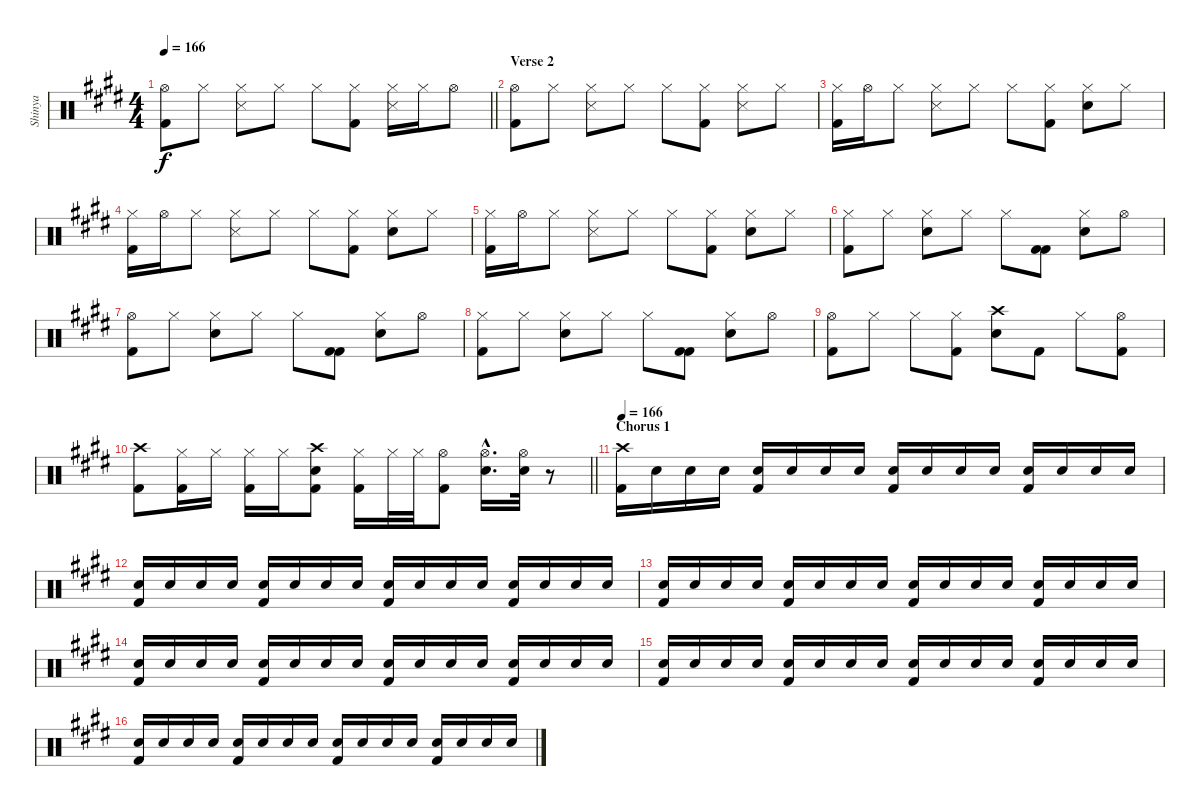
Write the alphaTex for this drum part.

\track ("Shinya" "Shinya") {instrument percussion}
\staff {score}
\articulation defaults
\ts (4 4)
\tempo 166
\clef neutral
\barLineRight lightlight
\ks e
("Hi-Hat (open)" "Kick (hit) 2").8{dy f} "Hi-Hat (closed)".8 ("Hi-Hat (closed)" "Snare (side stick) 3").8 "Hi-Hat (closed)".8 "Hi-Hat (closed)".8 ("Hi-Hat (closed)" "Kick (hit) 2").8 ("Hi-Hat (closed)" "Snare (side stick) 3").16 "Hi-Hat (closed)".16 "Hi-Hat (open)".8 |
\section ("" "Verse 2")
("Hi-Hat (open)" "Kick (hit) 2").8 "Hi-Hat (closed)".8 ("Hi-Hat (closed)" "Snare (side stick) 3").8 "Hi-Hat (closed)".8 "Hi-Hat (closed)".8 ("Hi-Hat (closed)" "Kick (hit) 2").8 ("Hi-Hat (closed)" "Snare (side stick) 3").8 "Hi-Hat (closed)".8 |
("Hi-Hat (closed)" "Kick (hit) 2").16 "Hi-Hat (open)".16 "Hi-Hat (closed)".8 ("Hi-Hat (closed)" "Snare (side stick) 3").8 "Hi-Hat (closed)".8 "Hi-Hat (closed)".8 ("Hi-Hat (closed)" "Kick (hit) 2").8 ("Hi-Hat (closed)" "Snare (hit) 2").8 "Hi-Hat (closed)".8 |
("Hi-Hat (closed)" "Kick (hit) 2").16 "Hi-Hat (open)".16 "Hi-Hat (closed)".8 ("Hi-Hat (closed)" "Snare (side stick) 3").8 "Hi-Hat (closed)".8 "Hi-Hat (closed)".8 ("Hi-Hat (closed)" "Kick (hit) 2").8 ("Hi-Hat (closed)" "Snare (hit) 2").8 "Hi-Hat (closed)".8 |
("Hi-Hat (closed)" "Kick (hit) 2").16 "Hi-Hat (open)".16 "Hi-Hat (closed)".8 ("Hi-Hat (closed)" "Snare (side stick) 3").8 "Hi-Hat (closed)".8 "Hi-Hat (closed)".8 ("Hi-Hat (closed)" "Kick (hit) 2").8 ("Hi-Hat (closed)" "Snare (hit) 2").8 "Hi-Hat (closed)".8 |
("Hi-Hat (closed)" "Kick (hit) 2").8 "Hi-Hat (closed)".8 ("Hi-Hat (closed)" "Snare (hit) 2").8 "Hi-Hat (closed)".8 "Hi-Hat (closed)".8 ("Kick (hit) 2" "Kick (hit) 2").8 ("Hi-Hat (closed)" "Snare (hit) 2").8 "Hi-Hat (open)".8 |
("Hi-Hat (open)" "Kick (hit) 2").8 "Hi-Hat (closed)".8 ("Hi-Hat (closed)" "Snare (hit) 2").8 "Hi-Hat (closed)".8 "Hi-Hat (closed)".8 ("Kick (hit) 2" "Kick (hit) 2").8 ("Hi-Hat (closed)" "Snare (hit) 2").8 "Hi-Hat (open)".8 |
("Hi-Hat (closed)" "Kick (hit) 2").8 "Hi-Hat (closed)".8 ("Hi-Hat (closed)" "Snare (hit) 2").8 "Hi-Hat (closed)".8 "Hi-Hat (closed)".8 ("Kick (hit) 2" "Kick (hit) 2").8 ("Hi-Hat (closed)" "Snare (hit) 2").8 "Hi-Hat (open)".8 |
("Hi-Hat (open)" "Kick (hit) 2").8 "Hi-Hat (closed)".8 "Hi-Hat (closed)".8 ("Hi-Hat (closed)" "Kick (hit) 2").8 ("Crash high (hit)" "Snare (hit) 2").8 "Kick (hit) 2".8 "Hi-Hat (closed)".8 ("Hi-Hat (open)" "Kick (hit) 2").8 |
\barLineRight lightlight
("Crash high (hit)" "Kick (hit) 2").8 ("Hi-Hat (closed)" "Kick (hit) 2").16 "Hi-Hat (closed)".16 ("Hi-Hat (closed)" "Kick (hit) 2").16 "Hi-Hat (closed)".16 ("Crash high (hit)" "Snare (hit) 2" "Kick (hit) 2").8 ("Hi-Hat (closed)" "Kick (hit) 2").16 "Hi-Hat (closed)".32 "Hi-Hat (closed)".32 ("Hi-Hat (open)" "Kick (hit) 2").8 ("Hi-Hat (open)"{hac} "Snare (hit) 2"{hac}).16{d} ("Hi-Hat (open)" "Snare (hit) 2").32 r.8 |
\section ("" "Chorus 1")
\tempo 166
("Crash high (hit)" "Kick (hit) 2").16 "Snare (hit) 2".16 "Snare (hit) 2".16 "Snare (hit) 2".16 ("Snare (hit) 2" "Kick (hit) 2").16 "Snare (hit) 2".16 "Snare (hit) 2".16 "Snare (hit) 2".16 ("Snare (hit) 2" "Kick (hit) 2").16 "Snare (hit) 2".16 "Snare (hit) 2".16 "Snare (hit) 2".16 ("Snare (hit) 2" "Kick (hit) 2").16 "Snare (hit) 2".16 "Snare (hit) 2".16 "Snare (hit) 2".16 |
("Snare (hit) 2" "Kick (hit) 2").16 "Snare (hit) 2".16 "Snare (hit) 2".16 "Snare (hit) 2".16 ("Snare (hit) 2" "Kick (hit) 2").16 "Snare (hit) 2".16 "Snare (hit) 2".16 "Snare (hit) 2".16 ("Snare (hit) 2" "Kick (hit) 2").16 "Snare (hit) 2".16 "Snare (hit) 2".16 "Snare (hit) 2".16 ("Snare (hit) 2" "Kick (hit) 2").16 "Snare (hit) 2".16 "Snare (hit) 2".16 "Snare (hit) 2".16 |
("Snare (hit) 2" "Kick (hit) 2").16 "Snare (hit) 2".16 "Snare (hit) 2".16 "Snare (hit) 2".16 ("Snare (hit) 2" "Kick (hit) 2").16 "Snare (hit) 2".16 "Snare (hit) 2".16 "Snare (hit) 2".16 ("Snare (hit) 2" "Kick (hit) 2").16 "Snare (hit) 2".16 "Snare (hit) 2".16 "Snare (hit) 2".16 ("Snare (hit) 2" "Kick (hit) 2").16 "Snare (hit) 2".16 "Snare (hit) 2".16 "Snare (hit) 2".16 |
("Snare (hit) 2" "Kick (hit) 2").16 "Snare (hit) 2".16 "Snare (hit) 2".16 "Snare (hit) 2".16 ("Snare (hit) 2" "Kick (hit) 2").16 "Snare (hit) 2".16 "Snare (hit) 2".16 "Snare (hit) 2".16 ("Snare (hit) 2" "Kick (hit) 2").16 "Snare (hit) 2".16 "Snare (hit) 2".16 "Snare (hit) 2".16 ("Snare (hit) 2" "Kick (hit) 2").16 "Snare (hit) 2".16 "Snare (hit) 2".16 "Snare (hit) 2".16 |
("Snare (hit) 2" "Kick (hit) 2").16 "Snare (hit) 2".16 "Snare (hit) 2".16 "Snare (hit) 2".16 ("Snare (hit) 2" "Kick (hit) 2").16 "Snare (hit) 2".16 "Snare (hit) 2".16 "Snare (hit) 2".16 ("Snare (hit) 2" "Kick (hit) 2").16 "Snare (hit) 2".16 "Snare (hit) 2".16 "Snare (hit) 2".16 ("Snare (hit) 2" "Kick (hit) 2").16 "Snare (hit) 2".16 "Snare (hit) 2".16 "Snare (hit) 2".16 |
("Snare (hit) 2" "Kick (hit) 2").16 "Snare (hit) 2".16 "Snare (hit) 2".16 "Snare (hit) 2".16 ("Snare (hit) 2" "Kick (hit) 2").16 "Snare (hit) 2".16 "Snare (hit) 2".16 "Snare (hit) 2".16 ("Snare (hit) 2" "Kick (hit) 2").16 "Snare (hit) 2".16 "Snare (hit) 2".16 "Snare (hit) 2".16 ("Snare (hit) 2" "Kick (hit) 2").16 "Snare (hit) 2".16 "Snare (hit) 2".16 "Snare (hit) 2".16
